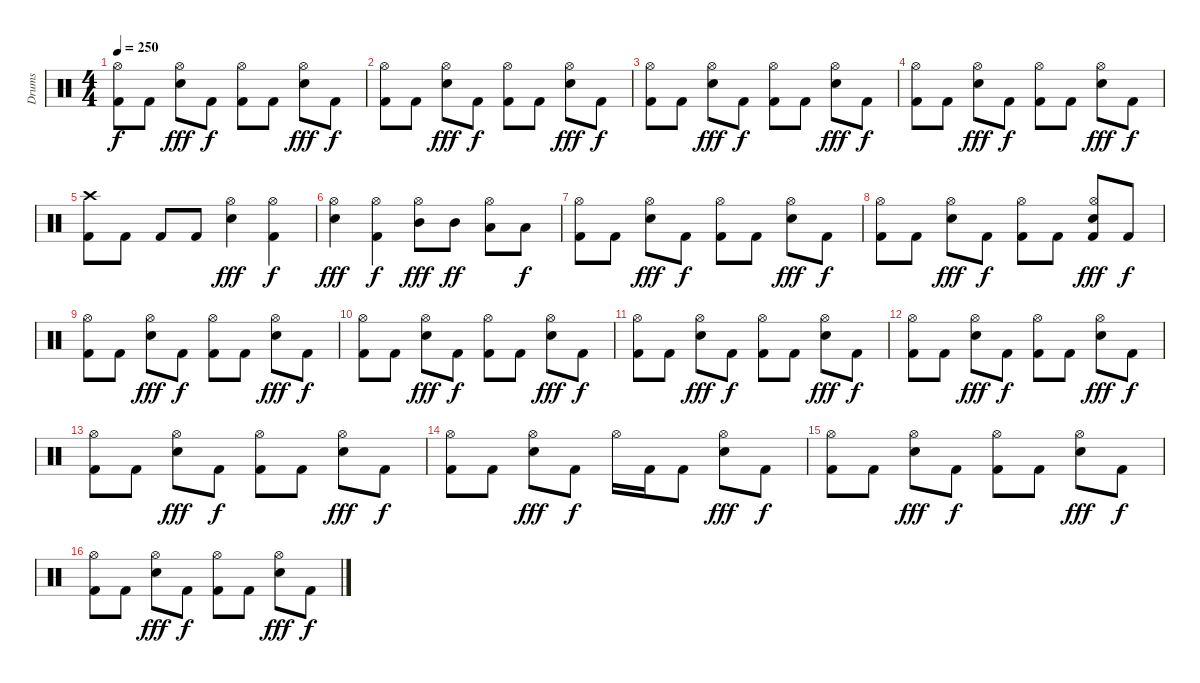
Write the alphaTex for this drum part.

\track ("Drums" "Drums") {instrument percussion}
\staff {score}
\articulation defaults
\ts (4 4)
\tempo 250
\clef neutral
\ks c
("Kick (hit) 2" "Hi-Hat (open)").8{dy f} "Kick (hit) 2".8 ("Hi-Hat (open)" "Snare (hit) 2").8{dy fff} "Kick (hit) 2".8{dy f} ("Hi-Hat (open)" "Kick (hit) 2").8 "Kick (hit) 2".8 ("Hi-Hat (open)" "Snare (hit) 2").8{dy fff} "Kick (hit) 2".8{dy f} |
("Kick (hit) 2" "Hi-Hat (open)").8 "Kick (hit) 2".8 ("Hi-Hat (open)" "Snare (hit) 2").8{dy fff} "Kick (hit) 2".8{dy f} ("Hi-Hat (open)" "Kick (hit) 2").8 "Kick (hit) 2".8 ("Hi-Hat (open)" "Snare (hit) 2").8{dy fff} "Kick (hit) 2".8{dy f} |
("Kick (hit) 2" "Hi-Hat (open)").8 "Kick (hit) 2".8 ("Hi-Hat (open)" "Snare (hit) 2").8{dy fff} "Kick (hit) 2".8{dy f} ("Hi-Hat (open)" "Kick (hit) 2").8 "Kick (hit) 2".8 ("Hi-Hat (open)" "Snare (hit) 2").8{dy fff} "Kick (hit) 2".8{dy f} |
("Kick (hit) 2" "Hi-Hat (open)").8 "Kick (hit) 2".8 ("Hi-Hat (open)" "Snare (hit) 2").8{dy fff} "Kick (hit) 2".8{dy f} ("Hi-Hat (open)" "Kick (hit) 2").8 "Kick (hit) 2".8 ("Hi-Hat (open)" "Snare (hit) 2").8{dy fff} "Kick (hit) 2".8{dy f} |
("Kick (hit) 2" "Crash high (hit)").8 "Kick (hit) 2".8 "Kick (hit) 2".8 "Kick (hit) 2".8 ("Snare (hit) 2" "Hi-Hat (open)").4{dy fff} ("Kick (hit) 2" "Hi-Hat (open)").4{dy f} |
("Hi-Hat (open)" "Snare (hit) 2").4{dy fff} ("Hi-Hat (open)" "Kick (hit) 2").4{dy f} ("Hi-Hat (open)" "Mid Tom (hit)").8{dy fff} "Mid Tom (hit)".8{dy ff} ("Hi-Hat (open)" "Low Tom (hit)").8 "Low Tom (hit)".8{dy f} |
("Kick (hit) 2" "Hi-Hat (open)").8 "Kick (hit) 2".8 ("Hi-Hat (open)" "Snare (hit) 2").8{dy fff} "Kick (hit) 2".8{dy f} ("Hi-Hat (open)" "Kick (hit) 2").8 "Kick (hit) 2".8 ("Hi-Hat (open)" "Snare (hit) 2").8{dy fff} "Kick (hit) 2".8{dy f} |
("Hi-Hat (open)" "Kick (hit) 2").8 "Kick (hit) 2".8 ("Hi-Hat (open)" "Snare (hit) 2").8{dy fff} "Kick (hit) 2".8{dy f} ("Hi-Hat (open)" "Kick (hit) 2").8 "Kick (hit) 2".8 ("Hi-Hat (open)" "Kick (hit) 2" "Snare (hit) 2").8{dy fff} "Kick (hit) 2".8{dy f} |
("Kick (hit) 2" "Hi-Hat (open)").8 "Kick (hit) 2".8 ("Hi-Hat (open)" "Snare (hit) 2").8{dy fff} "Kick (hit) 2".8{dy f} ("Hi-Hat (open)" "Kick (hit) 2").8 "Kick (hit) 2".8 ("Hi-Hat (open)" "Snare (hit) 2").8{dy fff} "Kick (hit) 2".8{dy f} |
("Kick (hit) 2" "Hi-Hat (open)").8 "Kick (hit) 2".8 ("Hi-Hat (open)" "Snare (hit) 2").8{dy fff} "Kick (hit) 2".8{dy f} ("Hi-Hat (open)" "Kick (hit) 2").8 "Kick (hit) 2".8 ("Hi-Hat (open)" "Snare (hit) 2").8{dy fff} "Kick (hit) 2".8{dy f} |
("Kick (hit) 2" "Hi-Hat (open)").8 "Kick (hit) 2".8 ("Hi-Hat (open)" "Snare (hit) 2").8{dy fff} "Kick (hit) 2".8{dy f} ("Hi-Hat (open)" "Kick (hit) 2").8 "Kick (hit) 2".8 ("Hi-Hat (open)" "Snare (hit) 2").8{dy fff} "Kick (hit) 2".8{dy f} |
("Kick (hit) 2" "Hi-Hat (open)").8 "Kick (hit) 2".8 ("Hi-Hat (open)" "Snare (hit) 2").8{dy fff} "Kick (hit) 2".8{dy f} ("Hi-Hat (open)" "Kick (hit) 2").8 "Kick (hit) 2".8 ("Hi-Hat (open)" "Snare (hit) 2").8{dy fff} "Kick (hit) 2".8{dy f} |
("Kick (hit) 2" "Hi-Hat (open)").8 "Kick (hit) 2".8 ("Hi-Hat (open)" "Snare (hit) 2").8{dy fff} "Kick (hit) 2".8{dy f} ("Hi-Hat (open)" "Kick (hit) 2").8 "Kick (hit) 2".8 ("Hi-Hat (open)" "Snare (hit) 2").8{dy fff} "Kick (hit) 2".8{dy f} |
("Hi-Hat (open)" "Kick (hit) 2").8 "Kick (hit) 2".8 ("Hi-Hat (open)" "Snare (hit) 2").8{dy fff} "Kick (hit) 2".8{dy f} "Hi-Hat (open)".16 "Kick (hit) 2".16 "Kick (hit) 2".8 ("Hi-Hat (open)" "Snare (hit) 2").8{dy fff} "Kick (hit) 2".8{dy f} |
("Kick (hit) 2" "Hi-Hat (open)").8 "Kick (hit) 2".8 ("Hi-Hat (open)" "Snare (hit) 2").8{dy fff} "Kick (hit) 2".8{dy f} ("Hi-Hat (open)" "Kick (hit) 2").8 "Kick (hit) 2".8 ("Hi-Hat (open)" "Snare (hit) 2").8{dy fff} "Kick (hit) 2".8{dy f} |
("Kick (hit) 2" "Hi-Hat (open)").8 "Kick (hit) 2".8 ("Hi-Hat (open)" "Snare (hit) 2").8{dy fff} "Kick (hit) 2".8{dy f} ("Hi-Hat (open)" "Kick (hit) 2").8 "Kick (hit) 2".8 ("Hi-Hat (open)" "Snare (hit) 2").8{dy fff} "Kick (hit) 2".8{dy f}
